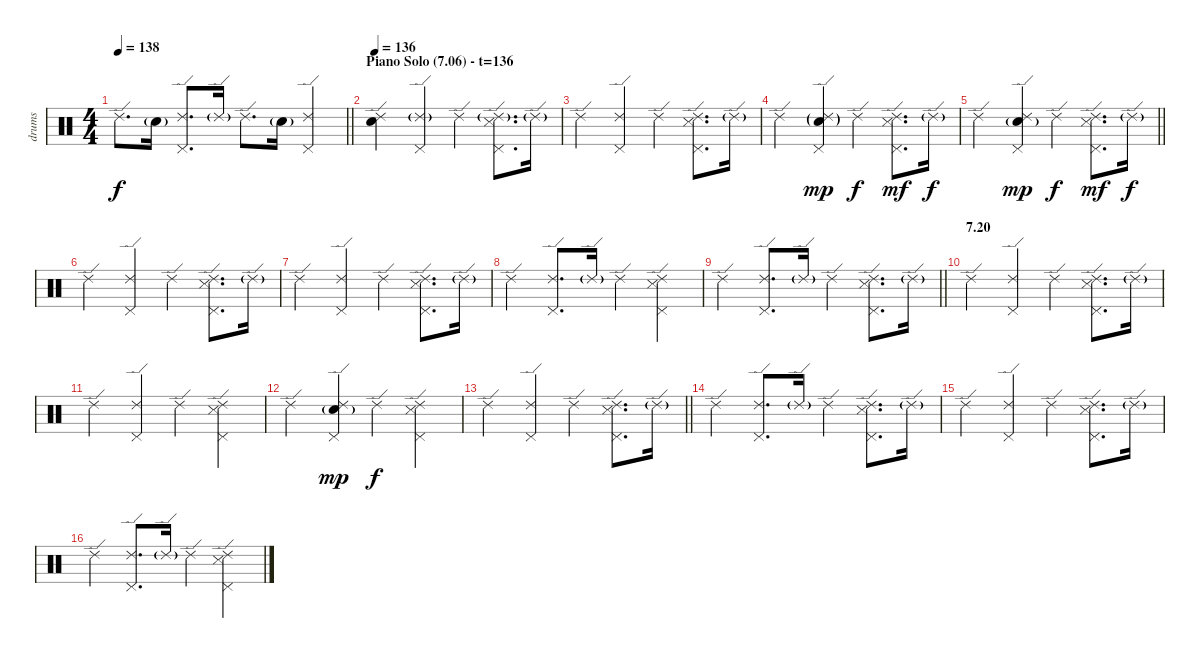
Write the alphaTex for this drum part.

\track ("drums" "drums") {instrument percussion}
\staff {score}
\articulation defaults
\ts (4 4)
\tempo 138
\clef neutral
\barLineRight lightlight
\ks c "Ride (edge) 2".8{d dy f} "Electric Snare (hit)"{g}.16
("Ride (edge) 2" "Pedal Hi-Hat (hit)").8{d} "Ride (edge) 2"{g}.16 "Ride (edge) 2".8{d} "Electric Snare (hit)"{g}.16 ("Ride (edge) 2" "Pedal Hi-Hat (hit)").4 |
\section ("" "Piano Solo (7.06) - t=136")
\tempo 136
("Ride (edge) 2" "Electric Snare (hit)").4 ("Ride (edge) 2"{g} "Pedal Hi-Hat (hit)").4 "Ride (edge) 2".4 ("Ride (edge) 2"{g} "Pedal Hi-Hat (hit)" "Snare (side stick) 3").8{d} "Ride (edge) 2"{g}.16 |
"Ride (edge) 2".4 ("Ride (edge) 2" "Pedal Hi-Hat (hit)").4 "Ride (edge) 2".4 ("Ride (edge) 2" "Pedal Hi-Hat (hit)" "Snare (side stick) 3").8{d} "Ride (edge) 2"{g}.16 |
"Ride (edge) 2".4 ("Ride (edge) 2"{g} "Pedal Hi-Hat (hit)" "Electric Snare (hit)"{g}).4{dy mp} "Ride (edge) 2".4{dy f} ("Ride (edge) 2" "Pedal Hi-Hat (hit)" "Snare (side stick) 3").8{d dy mf} "Ride (edge) 2"{g}.16{dy f} |
\barLineRight lightlight "Ride (edge) 2".4
("Ride (edge) 2" "Pedal Hi-Hat (hit)" "Electric Snare (hit)"{g}).4{dy mp} "Ride (edge) 2".4{dy f} ("Ride (edge) 2" "Pedal Hi-Hat (hit)" "Snare (side stick) 3").8{d dy mf} "Ride (edge) 2"{g}.16{dy f} |
"Ride (edge) 2".4 ("Ride (edge) 2" "Pedal Hi-Hat (hit)").4 "Ride (edge) 2".4 ("Ride (edge) 2" "Pedal Hi-Hat (hit)" "Snare (side stick) 3").8{d} "Ride (edge) 2"{g}.16 |
"Ride (edge) 2".4 ("Ride (edge) 2" "Pedal Hi-Hat (hit)").4 "Ride (edge) 2".4 ("Ride (edge) 2" "Pedal Hi-Hat (hit)" "Snare (side stick) 3").8{d} "Ride (edge) 2"{g}.16 |
"Ride (edge) 2".4 ("Ride (edge) 2" "Pedal Hi-Hat (hit)").8{d} "Ride (edge) 2"{g}.16 "Ride (edge) 2".4 ("Ride (edge) 2" "Pedal Hi-Hat (hit)" "Snare (side stick) 3").4 |
\barLineRight lightlight "Ride (edge) 2".4
("Ride (edge) 2" "Pedal Hi-Hat (hit)").8{d} "Ride (edge) 2"{g}.16 "Ride (edge) 2".4 ("Ride (edge) 2" "Pedal Hi-Hat (hit)" "Snare (side stick) 3").8{d} "Ride (edge) 2"{g}.16 |
\section ("" "7.20")
"Ride (edge) 2".4 ("Ride (edge) 2" "Pedal Hi-Hat (hit)").4 "Ride (edge) 2".4 ("Ride (edge) 2" "Pedal Hi-Hat (hit)" "Snare (side stick) 3").8{d} "Ride (edge) 2"{g}.16 |
"Ride (edge) 2".4 ("Ride (edge) 2" "Pedal Hi-Hat (hit)").4 "Ride (edge) 2".4 ("Ride (edge) 2" "Pedal Hi-Hat (hit)" "Snare (side stick) 3").4 |
"Ride (edge) 2".4 ("Ride (edge) 2" "Pedal Hi-Hat (hit)" "Electric Snare (hit)"{g}).4{dy mp} "Ride (edge) 2".4{dy f} ("Ride (edge) 2" "Pedal Hi-Hat (hit)" "Snare (side stick) 3").4 |
\barLineRight lightlight "Ride (edge) 2".4
("Ride (edge) 2" "Pedal Hi-Hat (hit)").4 "Ride (edge) 2".4 ("Ride (edge) 2" "Pedal Hi-Hat (hit)" "Snare (side stick) 3").8{d} "Ride (edge) 2"{g}.16 |
"Ride (edge) 2".4 ("Ride (edge) 2" "Pedal Hi-Hat (hit)").8{d} "Ride (edge) 2"{g}.16 "Ride (edge) 2".4 ("Ride (edge) 2" "Pedal Hi-Hat (hit)" "Snare (side stick) 3").8{d} "Ride (edge) 2"{g}.16 |
"Ride (edge) 2".4 ("Ride (edge) 2" "Pedal Hi-Hat (hit)").4 "Ride (edge) 2".4 ("Ride (edge) 2" "Pedal Hi-Hat (hit)" "Snare (side stick) 3").8{d} "Ride (edge) 2"{g}.16 |
"Ride (edge) 2".4 ("Ride (edge) 2" "Pedal Hi-Hat (hit)").8{d} "Ride (edge) 2"{g}.16 "Ride (edge) 2".4 ("Ride (edge) 2" "Pedal Hi-Hat (hit)" "Snare (side stick) 3").4
